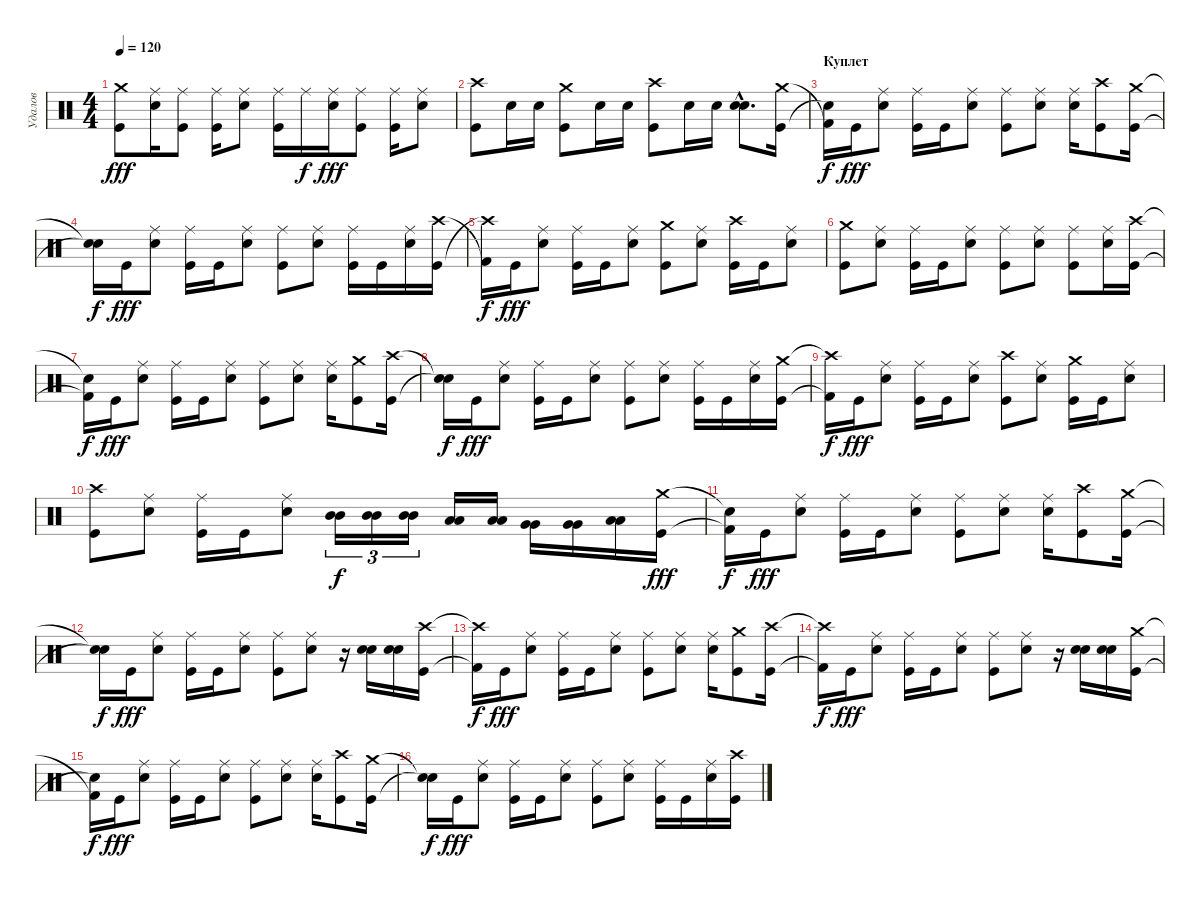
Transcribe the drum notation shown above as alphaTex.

\track ("Удалов " "Удалов ") {instrument percussion}
\staff {score}
\articulation defaults
\ts (4 4)
\tempo 120
\clef neutral
\ks c
("Kick (hit)" "Crash medium (hit)").8{dy fff} ("Snare (hit) 2" "Ride (middle)").16 ("Kick (hit)" "Ride (middle)").8 ("Kick (hit)" "Ride (middle)").16 ("Snare (hit) 2" "Ride (middle)").8 ("Kick (hit)" "Ride (middle)").16 "Ride (middle)".16{dy f} ("Snare (hit) 2" "Ride (middle)").16{dy fff} ("Kick (hit)" "Ride (middle)").8 ("Kick (hit)" "Ride (middle)").16 ("Snare (hit) 2" "Ride (middle)").8 |
("Crash high (hit)" "Kick (hit)").8 "Electric Snare (hit)".16 "Electric Snare (hit)".16 ("Crash medium (hit)" "Kick (hit)").8 "Electric Snare (hit)".16 "Electric Snare (hit)".16 ("Crash high (hit)" "Kick (hit)").8 "Electric Snare (hit)".16 "Electric Snare (hit)".16 ("Electric Snare (hit)"{hac} "Electric Snare (hit)"{hac}).8{d} ("Crash medium (hit)" "Kick (hit)").16 |
\section ("" "Куплет")
("Kick (hit) 2"{t} "Snare (hit)"{t}).16{dy f} "Kick (hit)".16{dy fff} ("Snare (hit) 2" "Ride (middle)").8 ("Kick (hit)" "Ride (middle)").16 "Kick (hit)".16 ("Snare (hit) 2" "Ride (middle)").8 ("Kick (hit)" "Ride (middle)").8 ("Snare (hit) 2" "Ride (middle)").8 ("Snare (hit) 2" "Ride (middle)").16 ("Kick (hit)" "Crash high (hit)").8 ("Kick (hit)" "Crash medium (hit)").16 |
("Snare (hit) 2"{t} "Snare (hit)"{t}).16{dy f} "Kick (hit)".16{dy fff} ("Snare (hit) 2" "Ride (middle)").8 ("Kick (hit)" "Ride (middle)").16 "Kick (hit)".16 ("Snare (hit) 2" "Ride (middle)").8 ("Kick (hit)" "Ride (middle)").8 ("Snare (hit) 2" "Ride (middle)").8 ("Kick (hit)" "Ride (middle)").16 "Kick (hit)".16 ("Snare (hit) 2" "Ride (middle)").16 ("Kick (hit)" "Crash high (hit)").16 |
("Crash high (hit)"{t} "Kick (hit) 2"{t}).16{dy f} "Kick (hit)".16{dy fff} ("Snare (hit) 2" "Ride (middle)").8 ("Kick (hit)" "Ride (middle)").16 "Kick (hit)".16 ("Snare (hit) 2" "Ride (middle)").8 ("Kick (hit)" "Crash medium (hit)").8 ("Ride (middle)" "Snare (hit) 2").8 ("Kick (hit)" "Crash high (hit)").16 "Kick (hit)".16 ("Snare (hit) 2" "Ride (middle)").8 |
("Crash medium (hit)" "Kick (hit)").8 ("Snare (hit) 2" "Ride (middle)").8 ("Kick (hit)" "Ride (middle)").16 "Kick (hit)".16 ("Snare (hit) 2" "Ride (middle)").8 ("Kick (hit)" "Ride (middle)").8 ("Ride (middle)" "Snare (hit) 2").8 ("Kick (hit)" "Ride (middle)").8 ("Snare (hit) 2" "Ride (middle)").16 ("Kick (hit)" "Crash high (hit)").16 |
("Kick (hit) 2"{t} "Snare (hit)"{t}).16{dy f} "Kick (hit)".16{dy fff} ("Snare (hit) 2" "Ride (middle)").8 ("Kick (hit)" "Ride (middle)").16 "Kick (hit)".16 ("Snare (hit) 2" "Ride (middle)").8 ("Kick (hit)" "Ride (middle)").8 ("Snare (hit) 2" "Ride (middle)").8 ("Snare (hit) 2" "Ride (middle)").16 ("Kick (hit)" "Crash medium (hit)").8 ("Kick (hit)" "Crash high (hit)").16 |
("Snare (hit) 2"{t} "Snare (hit)"{t}).16{dy f} "Kick (hit)".16{dy fff} ("Snare (hit) 2" "Ride (middle)").8 ("Kick (hit)" "Ride (middle)").16 "Kick (hit)".16 ("Snare (hit) 2" "Ride (middle)").8 ("Kick (hit)" "Ride (middle)").8 ("Snare (hit) 2" "Ride (middle)").8 ("Kick (hit)" "Ride (middle)").16 "Kick (hit)".16 ("Snare (hit) 2" "Ride (middle)").16 ("Crash medium (hit)" "Kick (hit)").16 |
("Crash high (hit)"{t} "Kick (hit) 2"{t}).16{dy f} "Kick (hit)".16{dy fff} ("Snare (hit) 2" "Ride (middle)").8 ("Ride (middle)" "Kick (hit)").16 "Kick (hit)".16 ("Snare (hit) 2" "Ride (middle)").8 ("Kick (hit)" "Crash high (hit)").8 ("Ride (middle)" "Snare (hit) 2").8 ("Kick (hit)" "Crash medium (hit)").16 "Kick (hit)".16 ("Snare (hit) 2" "Ride (middle)").8 |
("Crash high (hit)" "Kick (hit)").8 ("Snare (hit) 2" "Ride (middle)").8 ("Kick (hit)" "Ride (middle)").16 "Kick (hit)".16 ("Snare (hit) 2" "Ride (middle)").8 ("Mid Tom (hit)" "Mid Tom (hit)").16{tu (3 2) dy f} ("Mid Tom (hit)" "Mid Tom (hit)").16{tu (3 2)} ("Mid Tom (hit)" "Mid Tom (hit)").16{tu (3 2)} ("Low Tom (hit)" "Low Tom (hit)").16 ("Low Tom (hit)" "Low Tom (hit)").16 ("Very Low Tom (hit)" "Very Low Tom (hit)").16 ("Very Low Tom (hit)" "Very Low Tom (hit)").16 ("Low Floor Tom (hit)" "Low Floor Tom (hit)").16 ("Kick (hit)" "Crash medium (hit)").16{dy fff} |
("Kick (hit) 2"{t} "Snare (hit)"{t}).16{dy f} "Kick (hit)".16{dy fff} ("Snare (hit) 2" "Ride (middle)").8 ("Kick (hit)" "Ride (middle)").16 "Kick (hit)".16 ("Snare (hit) 2" "Ride (middle)").8 ("Kick (hit)" "Ride (middle)").8 ("Snare (hit) 2" "Ride (middle)").8 ("Snare (hit) 2" "Ride (middle)").16 ("Kick (hit)" "Crash high (hit)").8 ("Kick (hit)" "Crash medium (hit)").16 |
("Snare (hit) 2"{t} "Snare (hit)"{t}).16{dy f} "Kick (hit)".16{dy fff} ("Snare (hit) 2" "Ride (middle)").8 ("Kick (hit)" "Ride (middle)").16 "Kick (hit)".16 ("Snare (hit) 2" "Ride (middle)").8 ("Kick (hit)" "Ride (middle)").8 ("Snare (hit) 2" "Ride (middle)").8 r.16 ("Snare (hit) 2" "Snare (hit) 2").16 ("Snare (hit) 2" "Snare (hit) 2").16 ("Crash high (hit)" "Kick (hit)").16 |
("Crash high (hit)"{t} "Kick (hit) 2"{t}).16{dy f} "Kick (hit)".16{dy fff} ("Snare (hit) 2" "Ride (middle)").8 ("Kick (hit)" "Ride (middle)").16 "Kick (hit)".16 ("Snare (hit) 2" "Ride (middle)").8 ("Kick (hit)" "Ride (middle)").8 ("Ride (middle)" "Snare (hit) 2").8 ("Snare (hit) 2" "Ride (middle)").16 ("Crash medium (hit)" "Kick (hit)").8 ("Crash high (hit)" "Kick (hit)").16 |
("Crash high (hit)"{t} "Kick (hit) 2"{t}).16{dy f} "Kick (hit)".16{dy fff} ("Snare (hit) 2" "Ride (middle)").8 ("Kick (hit)" "Ride (middle)").16 "Kick (hit)".16 ("Snare (hit) 2" "Ride (middle)").8 ("Kick (hit)" "Ride (middle)").8 ("Ride (middle)" "Snare (hit) 2").8 r.16 ("Snare (hit) 2" "Snare (hit) 2").16 ("Snare (hit) 2" "Snare (hit) 2").16 ("Crash medium (hit)" "Kick (hit)").16 |
("Kick (hit) 2"{t} "Snare (hit)"{t}).16{dy f} "Kick (hit)".16{dy fff} ("Snare (hit) 2" "Ride (middle)").8 ("Kick (hit)" "Ride (middle)").16 "Kick (hit)".16 ("Snare (hit) 2" "Ride (middle)").8 ("Kick (hit)" "Ride (middle)").8 ("Snare (hit) 2" "Ride (middle)").8 ("Snare (hit) 2" "Ride (middle)").16 ("Kick (hit)" "Crash high (hit)").8 ("Kick (hit)" "Crash medium (hit)").16 |
("Snare (hit) 2"{t} "Snare (hit)"{t}).16{dy f} "Kick (hit)".16{dy fff} ("Snare (hit) 2" "Ride (middle)").8 ("Kick (hit)" "Ride (middle)").16 "Kick (hit)".16 ("Snare (hit) 2" "Ride (middle)").8 ("Kick (hit)" "Ride (middle)").8 ("Snare (hit) 2" "Ride (middle)").8 ("Kick (hit)" "Ride (middle)").16 "Kick (hit)".16 ("Snare (hit) 2" "Ride (middle)").16 ("Crash high (hit)" "Kick (hit)").16
